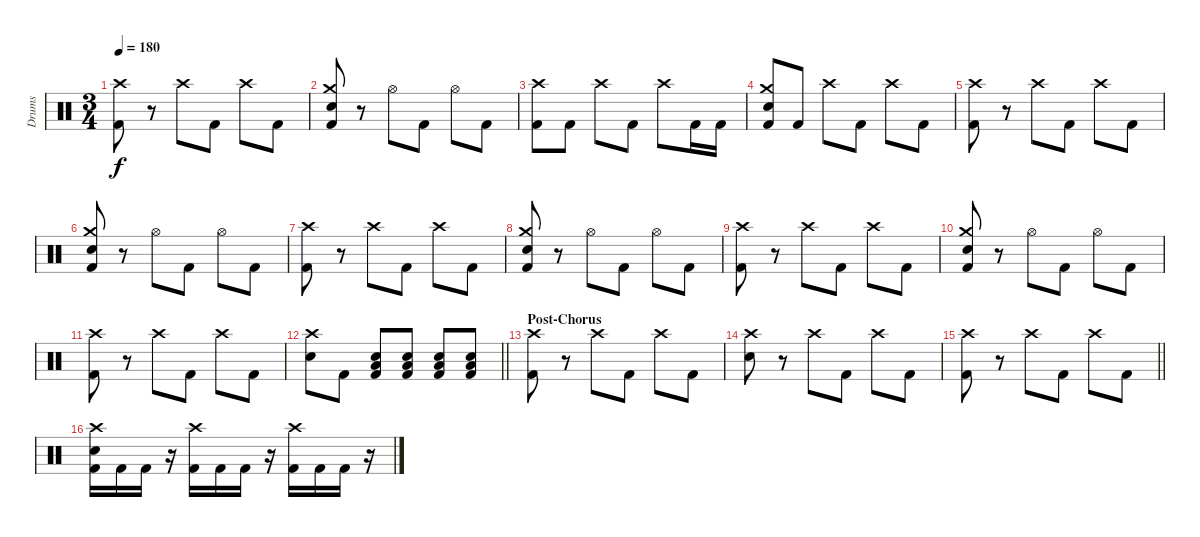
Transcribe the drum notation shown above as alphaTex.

\track ("Drums" "Drums") {instrument percussion}
\staff {score}
\articulation defaults
\ts (3 4)
\tempo 180
\clef neutral
\ks c
("Crash high (hit)" "Kick (hit) 2").8{dy f} r.8 "Crash high (hit)".8 "Kick (hit) 2".8 "Crash high (hit)".8 "Kick (hit) 2".8 |
("Crash medium (hit)" "Electric Snare (hit)" "Kick (hit) 2").8 r.8 "Hi-Hat (open)".8 "Kick (hit) 2".8 "Hi-Hat (open)".8 "Kick (hit) 2".8 |
("Crash high (hit)" "Kick (hit) 2").8 "Kick (hit) 2".8 "Crash high (hit)".8 "Kick (hit) 2".8 "Crash high (hit)".8 "Kick (hit) 2".16 "Kick (hit) 2".16 |
("Crash medium (hit)" "Electric Snare (hit)" "Kick (hit) 2").8 "Kick (hit) 2".8 "Crash high (hit)".8 "Kick (hit) 2".8 "Crash high (hit)".8 "Kick (hit) 2".8 |
("Crash high (hit)" "Kick (hit) 2").8 r.8 "Crash high (hit)".8 "Kick (hit) 2".8 "Crash high (hit)".8 "Kick (hit) 2".8 |
("Crash medium (hit)" "Electric Snare (hit)" "Kick (hit) 2").8 r.8 "Hi-Hat (open)".8 "Kick (hit) 2".8 "Hi-Hat (open)".8 "Kick (hit) 2".8 |
("Crash high (hit)" "Kick (hit) 2").8 r.8 "Crash high (hit)".8 "Kick (hit) 2".8 "Crash high (hit)".8 "Kick (hit) 2".8 |
("Crash medium (hit)" "Electric Snare (hit)" "Kick (hit) 2").8 r.8 "Hi-Hat (open)".8 "Kick (hit) 2".8 "Hi-Hat (open)".8 "Kick (hit) 2".8 |
("Crash high (hit)" "Kick (hit) 2").8 r.8 "Crash high (hit)".8 "Kick (hit) 2".8 "Crash high (hit)".8 "Kick (hit) 2".8 |
("Crash medium (hit)" "Electric Snare (hit)" "Kick (hit) 2").8 r.8 "Hi-Hat (open)".8 "Kick (hit) 2".8 "Hi-Hat (open)".8 "Kick (hit) 2".8 |
("Crash high (hit)" "Kick (hit) 2").8 r.8 "Crash high (hit)".8 "Kick (hit) 2".8 "Crash high (hit)".8 "Kick (hit) 2".8 |
\barLineRight lightlight
("Crash high (hit)" "Electric Snare (hit)").8 "Kick (hit) 2".8 ("Electric Snare (hit)" "Low Floor Tom (hit)" "Kick (hit) 2").8 ("Electric Snare (hit)" "Low Floor Tom (hit)" "Kick (hit) 2").8 ("Electric Snare (hit)" "Low Floor Tom (hit)" "Kick (hit) 2").8 ("Electric Snare (hit)" "Low Floor Tom (hit)" "Kick (hit) 2").8 |
\section ("" "Post-Chorus")
("Crash high (hit)" "Kick (hit) 2").8 r.8 "Crash high (hit)".8 "Kick (hit) 2".8 "Crash high (hit)".8 "Kick (hit) 2".8 |
("Crash high (hit)" "Electric Snare (hit)").8 r.8 "Crash high (hit)".8 "Kick (hit) 2".8 "Crash high (hit)".8 "Kick (hit) 2".8 |
\barLineRight lightlight
("Crash high (hit)" "Kick (hit) 2").8 r.8 "Crash high (hit)".8 "Kick (hit) 2".8 "Crash high (hit)".8 "Kick (hit) 2".8 |
("Crash high (hit)" "Electric Snare (hit)" "Kick (hit) 2").16 "Kick (hit) 2".16 "Kick (hit) 2".16 r.16 ("Crash high (hit)" "Kick (hit) 2").16 "Kick (hit) 2".16 "Kick (hit) 2".16 r.16 ("Crash high (hit)" "Kick (hit) 2").16 "Kick (hit) 2".16 "Kick (hit) 2".16 r.16
